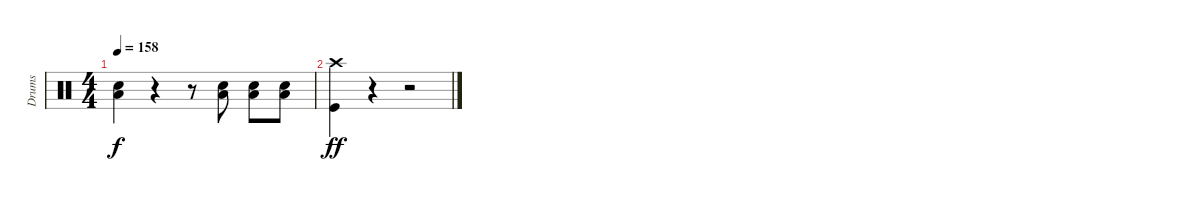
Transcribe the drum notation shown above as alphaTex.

\track ("Drums" "Drums") {instrument percussion}
\staff {score}
\articulation defaults
\ts (4 4)
\tempo 158
\clef neutral
\ks c
("Snare (hit) 2" "Low Floor Tom (hit)").4{dy f} r.4 r.8 ("Snare (hit) 2" "Low Floor Tom (hit)").8 ("Snare (hit) 2" "Low Floor Tom (hit)").8 ("Snare (hit) 2" "Low Floor Tom (hit)").8 |
("Crash high (hit)" "Kick (hit)").4{dy ff} r.4 r.2
